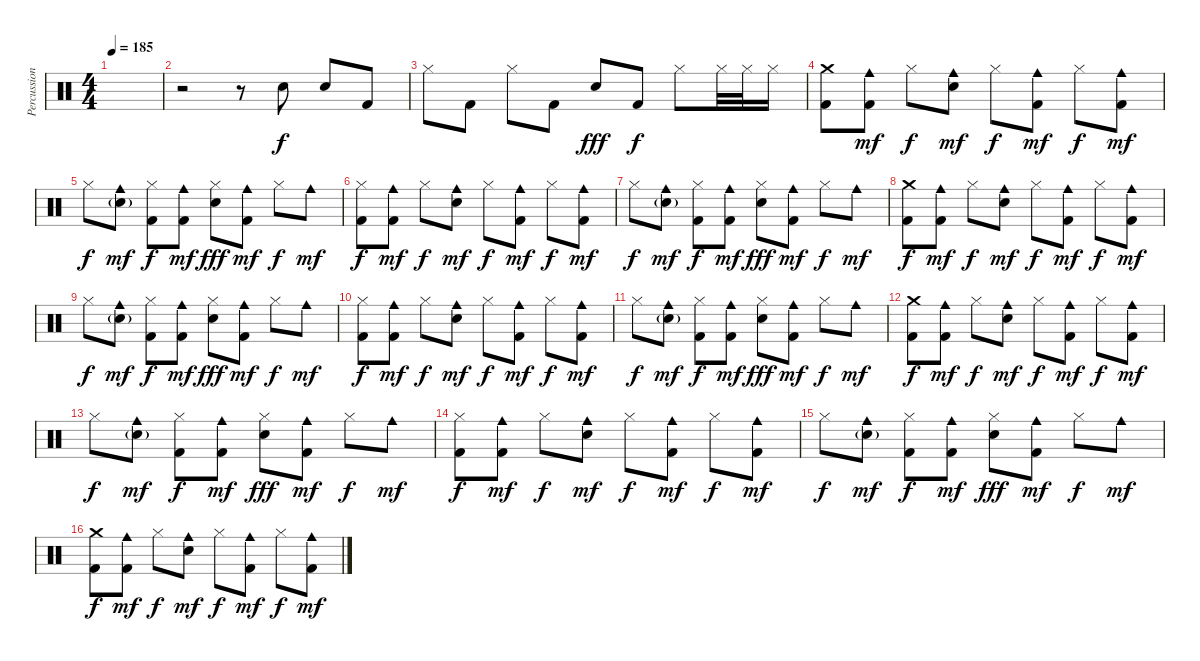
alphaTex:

\track ("Percussions" "Percussion") {instrument percussion}
\staff {score}
\articulation defaults
\ts (4 4)
\tempo 185
\clef neutral
\ks c
|
r.2 r.8 "Electric Snare (hit)".8 "Electric Snare (hit)".8 "Kick (hit) 2".8{dy f} |
"Hi-Hat (closed)".8 "Kick (hit) 2".8 "Hi-Hat (closed)".8 "Kick (hit) 2".8 "Electric Snare (hit)".8{dy fff} "Kick (hit) 2".8{dy f} "Hi-Hat (closed)".8 "Hi-Hat (closed)".32 "Hi-Hat (closed)".32 "Hi-Hat (closed)".16 |
("Crash medium (hit)" "Kick (hit) 2").8 ("Kick (hit) 2" "Cowbell medium (hit)").8{dy mf} "Hi-Hat (closed)".8{dy f} ("Electric Snare (hit)" "Cowbell medium (hit)").8{dy mf} "Hi-Hat (closed)".8{dy f} ("Kick (hit) 2" "Cowbell medium (hit)").8{dy mf} "Hi-Hat (closed)".8{dy f} ("Kick (hit) 2" "Cowbell medium (hit)").8{dy mf} |
"Hi-Hat (closed)".8{dy f} ("Electric Snare (hit)"{g} "Cowbell medium (hit)").8{dy mf} ("Kick (hit) 2" "Hi-Hat (closed)").8{dy f} ("Kick (hit) 2" "Cowbell medium (hit)").8{dy mf} ("Electric Snare (hit)" "Hi-Hat (closed)").8{dy fff} ("Kick (hit) 2" "Cowbell medium (hit)").8{dy mf} "Hi-Hat (closed)".8{dy f} "Cowbell medium (hit)".8{dy mf} |
("Kick (hit) 2" "Hi-Hat (closed)").8{dy f} ("Kick (hit) 2" "Cowbell medium (hit)").8{dy mf} "Hi-Hat (closed)".8{dy f} ("Electric Snare (hit)" "Cowbell medium (hit)").8{dy mf} "Hi-Hat (closed)".8{dy f} ("Kick (hit) 2" "Cowbell medium (hit)").8{dy mf} "Hi-Hat (closed)".8{dy f} ("Kick (hit) 2" "Cowbell medium (hit)").8{dy mf} |
"Hi-Hat (closed)".8{dy f} ("Electric Snare (hit)"{g} "Cowbell medium (hit)").8{dy mf} ("Kick (hit) 2" "Hi-Hat (closed)").8{dy f} ("Kick (hit) 2" "Cowbell medium (hit)").8{dy mf} ("Electric Snare (hit)" "Hi-Hat (closed)").8{dy fff} ("Kick (hit) 2" "Cowbell medium (hit)").8{dy mf} "Hi-Hat (closed)".8{dy f} "Cowbell medium (hit)".8{dy mf} |
("Crash medium (hit)" "Kick (hit) 2").8{dy f} ("Kick (hit) 2" "Cowbell medium (hit)").8{dy mf} "Hi-Hat (closed)".8{dy f} ("Electric Snare (hit)" "Cowbell medium (hit)").8{dy mf} "Hi-Hat (closed)".8{dy f} ("Kick (hit) 2" "Cowbell medium (hit)").8{dy mf} "Hi-Hat (closed)".8{dy f} ("Kick (hit) 2" "Cowbell medium (hit)").8{dy mf} |
"Hi-Hat (closed)".8{dy f} ("Electric Snare (hit)"{g} "Cowbell medium (hit)").8{dy mf} ("Kick (hit) 2" "Hi-Hat (closed)").8{dy f} ("Kick (hit) 2" "Cowbell medium (hit)").8{dy mf} ("Electric Snare (hit)" "Hi-Hat (closed)").8{dy fff} ("Kick (hit) 2" "Cowbell medium (hit)").8{dy mf} "Hi-Hat (closed)".8{dy f} "Cowbell medium (hit)".8{dy mf} |
("Kick (hit) 2" "Hi-Hat (closed)").8{dy f} ("Kick (hit) 2" "Cowbell medium (hit)").8{dy mf} "Hi-Hat (closed)".8{dy f} ("Electric Snare (hit)" "Cowbell medium (hit)").8{dy mf} "Hi-Hat (closed)".8{dy f} ("Kick (hit) 2" "Cowbell medium (hit)").8{dy mf} "Hi-Hat (closed)".8{dy f} ("Kick (hit) 2" "Cowbell medium (hit)").8{dy mf} |
"Hi-Hat (closed)".8{dy f} ("Electric Snare (hit)"{g} "Cowbell medium (hit)").8{dy mf} ("Kick (hit) 2" "Hi-Hat (closed)").8{dy f} ("Kick (hit) 2" "Cowbell medium (hit)").8{dy mf} ("Electric Snare (hit)" "Hi-Hat (closed)").8{dy fff} ("Kick (hit) 2" "Cowbell medium (hit)").8{dy mf} "Hi-Hat (closed)".8{dy f} "Cowbell medium (hit)".8{dy mf} |
("Crash medium (hit)" "Kick (hit) 2").8{dy f} ("Kick (hit) 2" "Cowbell medium (hit)").8{dy mf} "Hi-Hat (closed)".8{dy f} ("Electric Snare (hit)" "Cowbell medium (hit)").8{dy mf} "Hi-Hat (closed)".8{dy f} ("Kick (hit) 2" "Cowbell medium (hit)").8{dy mf} "Hi-Hat (closed)".8{dy f} ("Kick (hit) 2" "Cowbell medium (hit)").8{dy mf} |
"Hi-Hat (closed)".8{dy f} ("Electric Snare (hit)"{g} "Cowbell medium (hit)").8{dy mf} ("Kick (hit) 2" "Hi-Hat (closed)").8{dy f} ("Kick (hit) 2" "Cowbell medium (hit)").8{dy mf} ("Electric Snare (hit)" "Hi-Hat (closed)").8{dy fff} ("Kick (hit) 2" "Cowbell medium (hit)").8{dy mf} "Hi-Hat (closed)".8{dy f} "Cowbell medium (hit)".8{dy mf} |
("Kick (hit) 2" "Hi-Hat (closed)").8{dy f} ("Kick (hit) 2" "Cowbell medium (hit)").8{dy mf} "Hi-Hat (closed)".8{dy f} ("Electric Snare (hit)" "Cowbell medium (hit)").8{dy mf} "Hi-Hat (closed)".8{dy f} ("Kick (hit) 2" "Cowbell medium (hit)").8{dy mf} "Hi-Hat (closed)".8{dy f} ("Kick (hit) 2" "Cowbell medium (hit)").8{dy mf} |
"Hi-Hat (closed)".8{dy f} ("Electric Snare (hit)"{g} "Cowbell medium (hit)").8{dy mf} ("Kick (hit) 2" "Hi-Hat (closed)").8{dy f} ("Kick (hit) 2" "Cowbell medium (hit)").8{dy mf} ("Electric Snare (hit)" "Hi-Hat (closed)").8{dy fff} ("Kick (hit) 2" "Cowbell medium (hit)").8{dy mf} "Hi-Hat (closed)".8{dy f} "Cowbell medium (hit)".8{dy mf} |
("Crash medium (hit)" "Kick (hit) 2").8{dy f} ("Kick (hit) 2" "Cowbell medium (hit)").8{dy mf} "Hi-Hat (closed)".8{dy f} ("Electric Snare (hit)" "Cowbell medium (hit)").8{dy mf} "Hi-Hat (closed)".8{dy f} ("Kick (hit) 2" "Cowbell medium (hit)").8{dy mf} "Hi-Hat (closed)".8{dy f} ("Kick (hit) 2" "Cowbell medium (hit)").8{dy mf}
